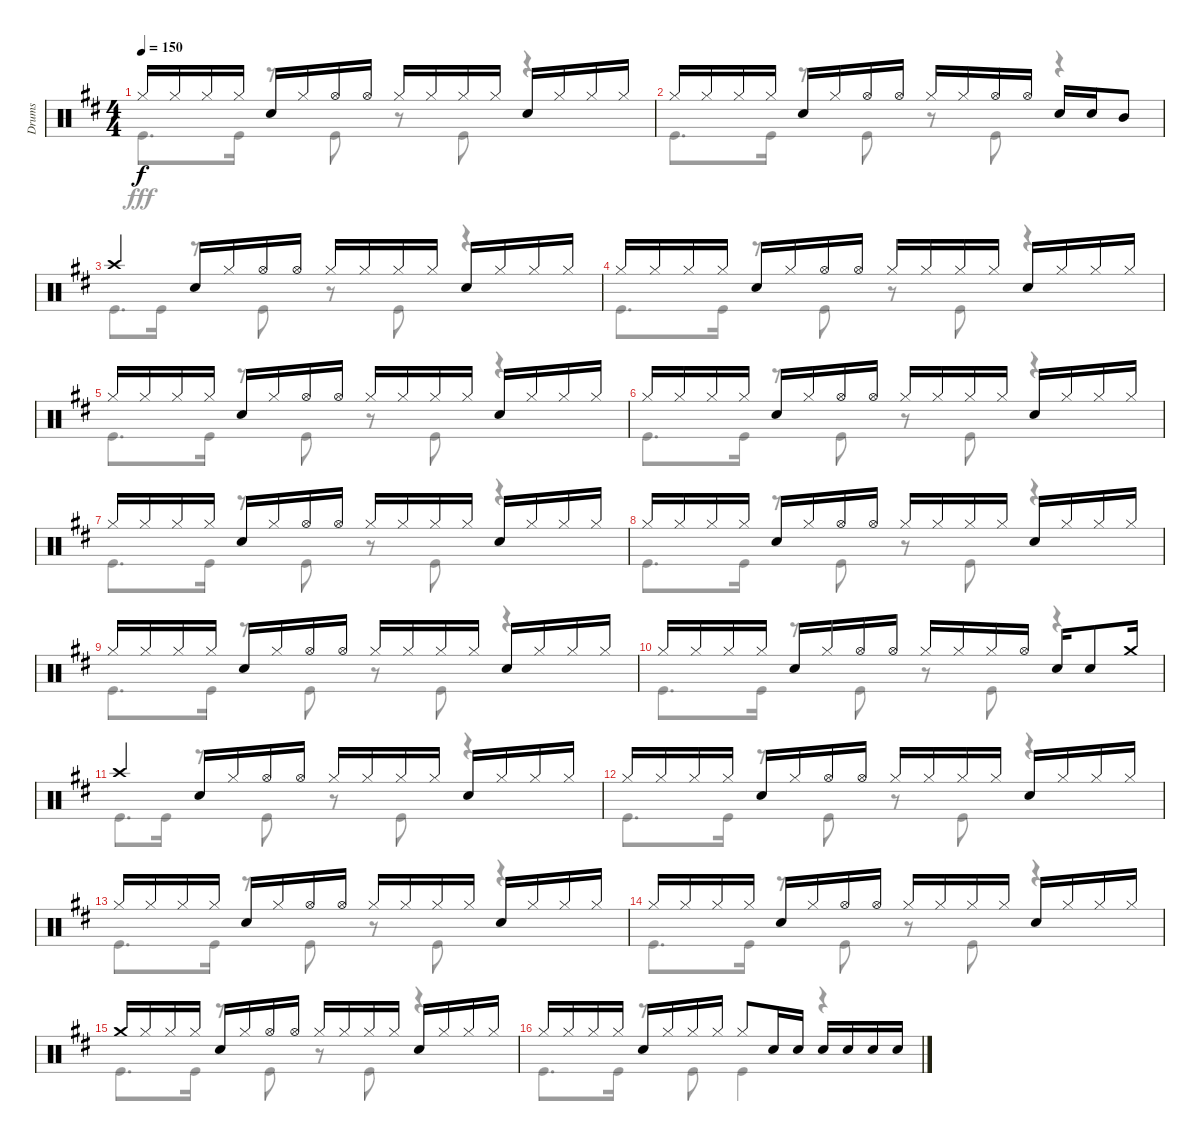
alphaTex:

\track ("Drums" "Drums") {instrument percussion}
\staff {score}
\articulation defaults
\voice
\ts (4 4)
\tempo 150
\clef neutral
\ks d "Hi-Hat (closed)".16{dy f} "Hi-Hat (closed)".16 "Hi-Hat (closed)".16 "Hi-Hat (closed)".16 "Snare (hit) 2".16 "Hi-Hat (closed)".16 "Hi-Hat (open)".16 "Hi-Hat (open)".16 "Hi-Hat (closed)".16 "Hi-Hat (closed)".16 "Hi-Hat (closed)".16 "Hi-Hat (closed)".16 "Snare (hit) 2".16 "Hi-Hat (closed)".16 "Hi-Hat (closed)".16 "Hi-Hat (closed)".16
|
"Hi-Hat (closed)".16 "Hi-Hat (closed)".16 "Hi-Hat (closed)".16 "Hi-Hat (closed)".16 "Snare (hit) 2".16 "Hi-Hat (closed)".16 "Hi-Hat (open)".16 "Hi-Hat (open)".16 "Hi-Hat (closed)".16 "Hi-Hat (closed)".16 "Hi-Hat (open)".16 "Hi-Hat (open)".16 "Snare (hit) 2".16 "Snare (hit) 2".16 "Mid Tom (hit)".8 |
"Crash high (hit)".4 "Snare (hit) 2".16 "Hi-Hat (closed)".16 "Hi-Hat (open)".16 "Hi-Hat (open)".16 "Hi-Hat (closed)".16 "Hi-Hat (closed)".16 "Hi-Hat (closed)".16 "Hi-Hat (closed)".16 "Snare (hit) 2".16 "Hi-Hat (closed)".16 "Hi-Hat (closed)".16 "Hi-Hat (closed)".16 |
"Hi-Hat (closed)".16 "Hi-Hat (closed)".16 "Hi-Hat (closed)".16 "Hi-Hat (closed)".16 "Snare (hit) 2".16 "Hi-Hat (closed)".16 "Hi-Hat (open)".16 "Hi-Hat (open)".16 "Hi-Hat (closed)".16 "Hi-Hat (closed)".16 "Hi-Hat (closed)".16 "Hi-Hat (closed)".16 "Snare (hit) 2".16 "Hi-Hat (closed)".16 "Hi-Hat (closed)".16 "Hi-Hat (closed)".16 |
"Hi-Hat (closed)".16 "Hi-Hat (closed)".16 "Hi-Hat (closed)".16 "Hi-Hat (closed)".16 "Snare (hit) 2".16 "Hi-Hat (closed)".16 "Hi-Hat (open)".16 "Hi-Hat (open)".16 "Hi-Hat (closed)".16 "Hi-Hat (closed)".16 "Hi-Hat (closed)".16 "Hi-Hat (closed)".16 "Snare (hit) 2".16 "Hi-Hat (closed)".16 "Hi-Hat (closed)".16 "Hi-Hat (closed)".16 |
"Hi-Hat (closed)".16 "Hi-Hat (closed)".16 "Hi-Hat (closed)".16 "Hi-Hat (closed)".16 "Snare (hit) 2".16 "Hi-Hat (closed)".16 "Hi-Hat (open)".16 "Hi-Hat (open)".16 "Hi-Hat (closed)".16 "Hi-Hat (closed)".16 "Hi-Hat (closed)".16 "Hi-Hat (closed)".16 "Snare (hit) 2".16 "Hi-Hat (closed)".16 "Hi-Hat (closed)".16 "Hi-Hat (closed)".16 |
"Hi-Hat (closed)".16 "Hi-Hat (closed)".16 "Hi-Hat (closed)".16 "Hi-Hat (closed)".16 "Snare (hit) 2".16 "Hi-Hat (closed)".16 "Hi-Hat (open)".16 "Hi-Hat (open)".16 "Hi-Hat (closed)".16 "Hi-Hat (closed)".16 "Hi-Hat (closed)".16 "Hi-Hat (closed)".16 "Snare (hit) 2".16 "Hi-Hat (closed)".16 "Hi-Hat (closed)".16 "Hi-Hat (closed)".16 |
"Hi-Hat (closed)".16 "Hi-Hat (closed)".16 "Hi-Hat (closed)".16 "Hi-Hat (closed)".16 "Snare (hit) 2".16 "Hi-Hat (closed)".16 "Hi-Hat (open)".16 "Hi-Hat (open)".16 "Hi-Hat (closed)".16 "Hi-Hat (closed)".16 "Hi-Hat (closed)".16 "Hi-Hat (closed)".16 "Snare (hit) 2".16 "Hi-Hat (closed)".16 "Hi-Hat (closed)".16 "Hi-Hat (closed)".16 |
"Hi-Hat (closed)".16 "Hi-Hat (closed)".16 "Hi-Hat (closed)".16 "Hi-Hat (closed)".16 "Snare (hit) 2".16 "Hi-Hat (closed)".16 "Hi-Hat (open)".16 "Hi-Hat (open)".16 "Hi-Hat (closed)".16 "Hi-Hat (closed)".16 "Hi-Hat (closed)".16 "Hi-Hat (closed)".16 "Snare (hit) 2".16 "Hi-Hat (closed)".16 "Hi-Hat (closed)".16 "Hi-Hat (closed)".16 |
"Hi-Hat (closed)".16 "Hi-Hat (closed)".16 "Hi-Hat (closed)".16 "Hi-Hat (closed)".16 "Snare (hit) 2".16 "Hi-Hat (closed)".16 "Hi-Hat (open)".16 "Hi-Hat (open)".16 "Hi-Hat (closed)".16 "Hi-Hat (closed)".16 "Hi-Hat (closed)".16 "Hi-Hat (open)".16 "Snare (hit) 2".16 "Snare (hit) 2".8 "Crash medium (hit)".16 |
"Crash high (hit)".4 "Snare (hit) 2".16 "Hi-Hat (closed)".16 "Hi-Hat (open)".16 "Hi-Hat (open)".16 "Hi-Hat (closed)".16 "Hi-Hat (closed)".16 "Hi-Hat (closed)".16 "Hi-Hat (closed)".16 "Snare (hit) 2".16 "Hi-Hat (closed)".16 "Hi-Hat (closed)".16 "Hi-Hat (closed)".16 |
"Hi-Hat (closed)".16 "Hi-Hat (closed)".16 "Hi-Hat (closed)".16 "Hi-Hat (closed)".16 "Snare (hit) 2".16 "Hi-Hat (closed)".16 "Hi-Hat (open)".16 "Hi-Hat (open)".16 "Hi-Hat (closed)".16 "Hi-Hat (closed)".16 "Hi-Hat (closed)".16 "Hi-Hat (closed)".16 "Snare (hit) 2".16 "Hi-Hat (closed)".16 "Hi-Hat (closed)".16 "Hi-Hat (closed)".16 |
"Hi-Hat (closed)".16 "Hi-Hat (closed)".16 "Hi-Hat (closed)".16 "Hi-Hat (closed)".16 "Snare (hit) 2".16 "Hi-Hat (closed)".16 "Hi-Hat (open)".16 "Hi-Hat (open)".16 "Hi-Hat (closed)".16 "Hi-Hat (closed)".16 "Hi-Hat (closed)".16 "Hi-Hat (closed)".16 "Snare (hit) 2".16 "Hi-Hat (closed)".16 "Hi-Hat (closed)".16 "Hi-Hat (closed)".16 |
"Hi-Hat (closed)".16 "Hi-Hat (closed)".16 "Hi-Hat (closed)".16 "Hi-Hat (closed)".16 "Snare (hit) 2".16 "Hi-Hat (closed)".16 "Hi-Hat (open)".16 "Hi-Hat (open)".16 "Hi-Hat (closed)".16 "Hi-Hat (closed)".16 "Hi-Hat (closed)".16 "Hi-Hat (closed)".16 "Snare (hit) 2".16 "Hi-Hat (closed)".16 "Hi-Hat (closed)".16 "Hi-Hat (closed)".16 |
"Crash medium (hit)".16 "Hi-Hat (closed)".16 "Hi-Hat (closed)".16 "Hi-Hat (closed)".16 "Snare (hit) 2".16 "Hi-Hat (closed)".16 "Hi-Hat (open)".16 "Hi-Hat (open)".16 "Hi-Hat (closed)".16 "Hi-Hat (closed)".16 "Hi-Hat (closed)".16 "Hi-Hat (closed)".16 "Snare (hit) 2".16 "Hi-Hat (closed)".16 "Hi-Hat (closed)".16 "Hi-Hat (closed)".16 |
"Hi-Hat (closed)".16 "Hi-Hat (closed)".16 "Hi-Hat (closed)".16 "Hi-Hat (closed)".16 "Snare (hit) 2".16 "Hi-Hat (closed)".16 "Hi-Hat (closed)".16 "Hi-Hat (closed)".16 "Hi-Hat (closed)".8 "Snare (hit) 2".16 "Snare (hit) 2".16 "Snare (hit) 2".16 "Snare (hit) 2".16 "Snare (hit) 2".16 "Snare (hit) 2".16
\voice
\clef neutral
\ottava regular
\simile none
\ks d "Kick (hit)".8{d dy fff} "Kick (hit)".16
r.8 "Kick (hit)".8 r.8 "Kick (hit)".8 r.4 |
"Kick (hit)".8{d} "Kick (hit)".16 r.8 "Kick (hit)".8 r.8 "Kick (hit)".8 r.4 |
"Kick (hit)".8{d} "Kick (hit)".16 r.8 "Kick (hit)".8 r.8 "Kick (hit)".8 r.4 |
"Kick (hit)".8{d} "Kick (hit)".16 r.8 "Kick (hit)".8 r.8 "Kick (hit)".8 r.4 |
"Kick (hit)".8{d} "Kick (hit)".16 r.8 "Kick (hit)".8 r.8 "Kick (hit)".8 r.4 |
"Kick (hit)".8{d} "Kick (hit)".16 r.8 "Kick (hit)".8 r.8 "Kick (hit)".8 r.4 |
"Kick (hit)".8{d} "Kick (hit)".16 r.8 "Kick (hit)".8 r.8 "Kick (hit)".8 r.4 |
"Kick (hit)".8{d} "Kick (hit)".16 r.8 "Kick (hit)".8 r.8 "Kick (hit)".8 r.4 |
"Kick (hit)".8{d} "Kick (hit)".16 r.8 "Kick (hit)".8 r.8 "Kick (hit)".8 r.4 |
"Kick (hit)".8{d} "Kick (hit)".16 r.8 "Kick (hit)".8 r.8 "Kick (hit)".8 r.4 |
"Kick (hit)".8{d} "Kick (hit)".16 r.8 "Kick (hit)".8 r.8 "Kick (hit)".8 r.4 |
"Kick (hit)".8{d} "Kick (hit)".16 r.8 "Kick (hit)".8 r.8 "Kick (hit)".8 r.4 |
"Kick (hit)".8{d} "Kick (hit)".16 r.8 "Kick (hit)".8 r.8 "Kick (hit)".8 r.4 |
"Kick (hit)".8{d} "Kick (hit)".16 r.8 "Kick (hit)".8 r.8 "Kick (hit)".8 r.4 |
"Kick (hit)".8{d} "Kick (hit)".16 r.8 "Kick (hit)".8 r.8 "Kick (hit)".8 r.4 |
"Kick (hit)".8{d} "Kick (hit)".16 r.8 "Kick (hit)".8 "Kick (hit)".4 r.4
